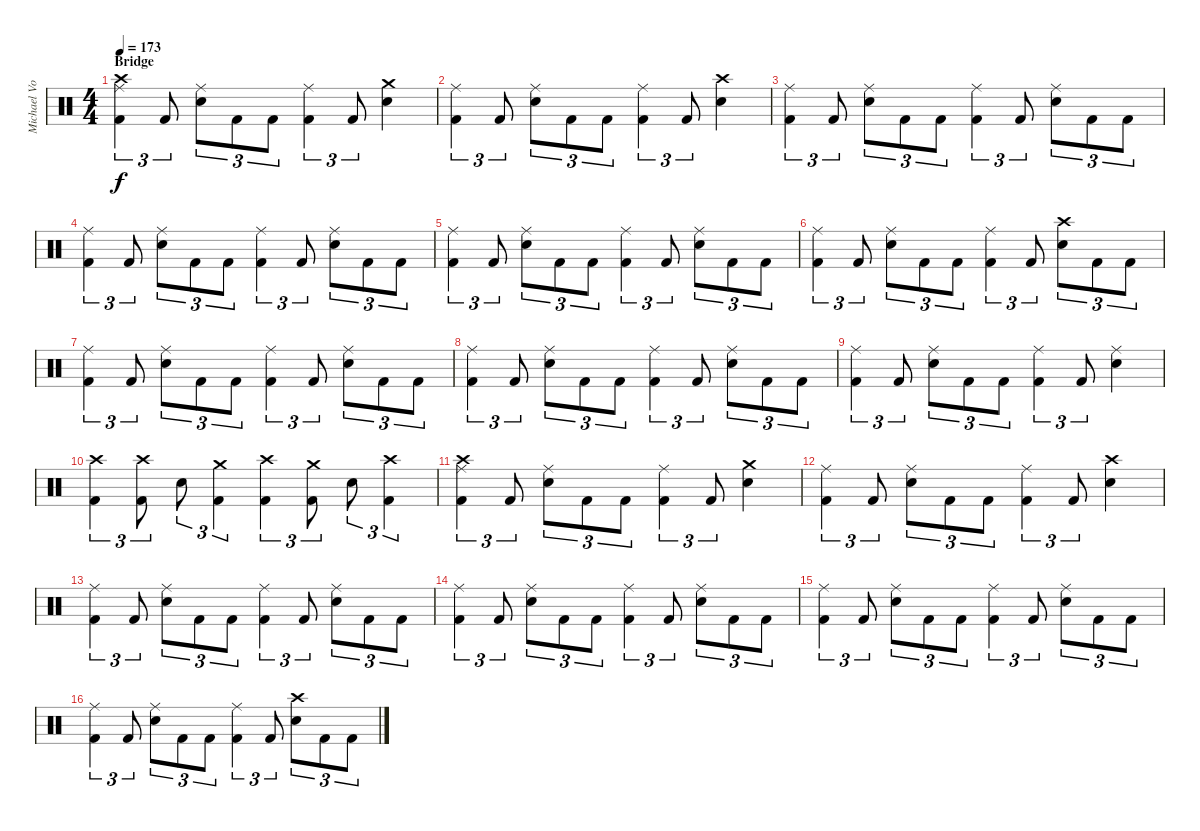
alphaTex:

\track ("Michael Von Knorring " "Michael Vo") {instrument percussion}
\staff {score}
\articulation defaults
\ts (4 4)
\section ("" "Bridge")
\tempo 173
\clef neutral
\ks c
("Crash high (hit)" "Ride (middle)" "Kick (hit) 2").4{tu (3 2) dy f} "Kick (hit) 2".8{tu (3 2)} ("Ride (middle)" "Snare (hit) 2").8{tu (3 2)} "Kick (hit) 2".8{tu (3 2)} "Kick (hit) 2".8{tu (3 2)} ("Ride (middle)" "Kick (hit) 2").4{tu (3 2)} "Kick (hit) 2".8{tu (3 2)} ("Crash medium (hit)" "Snare (hit) 2").4 |
("Ride (middle)" "Kick (hit) 2").4{tu (3 2)} "Kick (hit) 2".8{tu (3 2)} ("Ride (middle)" "Snare (hit) 2").8{tu (3 2)} "Kick (hit) 2".8{tu (3 2)} "Kick (hit) 2".8{tu (3 2)} ("Ride (middle)" "Kick (hit) 2").4{tu (3 2)} "Kick (hit) 2".8{tu (3 2)} ("Crash high (hit)" "Snare (hit) 2").4 |
("Ride (middle)" "Kick (hit) 2").4{tu (3 2)} "Kick (hit) 2".8{tu (3 2)} ("Ride (middle)" "Snare (hit) 2").8{tu (3 2)} "Kick (hit) 2".8{tu (3 2)} "Kick (hit) 2".8{tu (3 2)} ("Ride (middle)" "Kick (hit) 2").4{tu (3 2)} "Kick (hit) 2".8{tu (3 2)} ("Ride (middle)" "Snare (hit) 2").8{tu (3 2)} "Kick (hit) 2".8{tu (3 2)} "Kick (hit) 2".8{tu (3 2)} |
("Ride (middle)" "Kick (hit) 2").4{tu (3 2)} "Kick (hit) 2".8{tu (3 2)} ("Ride (middle)" "Snare (hit) 2").8{tu (3 2)} "Kick (hit) 2".8{tu (3 2)} "Kick (hit) 2".8{tu (3 2)} ("Ride (middle)" "Kick (hit) 2").4{tu (3 2)} "Kick (hit) 2".8{tu (3 2)} ("Ride (middle)" "Snare (hit) 2").8{tu (3 2)} "Kick (hit) 2".8{tu (3 2)} "Kick (hit) 2".8{tu (3 2)} |
("Ride (middle)" "Kick (hit) 2").4{tu (3 2)} "Kick (hit) 2".8{tu (3 2)} ("Ride (middle)" "Snare (hit) 2").8{tu (3 2)} "Kick (hit) 2".8{tu (3 2)} "Kick (hit) 2".8{tu (3 2)} ("Ride (middle)" "Kick (hit) 2").4{tu (3 2)} "Kick (hit) 2".8{tu (3 2)} ("Ride (middle)" "Snare (hit) 2").8{tu (3 2)} "Kick (hit) 2".8{tu (3 2)} "Kick (hit) 2".8{tu (3 2)} |
("Ride (middle)" "Kick (hit) 2").4{tu (3 2)} "Kick (hit) 2".8{tu (3 2)} ("Ride (middle)" "Snare (hit) 2").8{tu (3 2)} "Kick (hit) 2".8{tu (3 2)} "Kick (hit) 2".8{tu (3 2)} ("Ride (middle)" "Kick (hit) 2").4{tu (3 2)} "Kick (hit) 2".8{tu (3 2)} ("Crash high (hit)" "Snare (hit) 2").8{tu (3 2)} "Kick (hit) 2".8{tu (3 2)} "Kick (hit) 2".8{tu (3 2)} |
("Ride (middle)" "Kick (hit) 2").4{tu (3 2)} "Kick (hit) 2".8{tu (3 2)} ("Ride (middle)" "Snare (hit) 2").8{tu (3 2)} "Kick (hit) 2".8{tu (3 2)} "Kick (hit) 2".8{tu (3 2)} ("Ride (middle)" "Kick (hit) 2").4{tu (3 2)} "Kick (hit) 2".8{tu (3 2)} ("Ride (middle)" "Snare (hit) 2").8{tu (3 2)} "Kick (hit) 2".8{tu (3 2)} "Kick (hit) 2".8{tu (3 2)} |
("Ride (middle)" "Kick (hit) 2").4{tu (3 2)} "Kick (hit) 2".8{tu (3 2)} ("Ride (middle)" "Snare (hit) 2").8{tu (3 2)} "Kick (hit) 2".8{tu (3 2)} "Kick (hit) 2".8{tu (3 2)} ("Ride (middle)" "Kick (hit) 2").4{tu (3 2)} "Kick (hit) 2".8{tu (3 2)} ("Ride (middle)" "Snare (hit) 2").8{tu (3 2)} "Kick (hit) 2".8{tu (3 2)} "Kick (hit) 2".8{tu (3 2)} |
("Ride (middle)" "Kick (hit) 2").4{tu (3 2)} "Kick (hit) 2".8{tu (3 2)} ("Ride (middle)" "Snare (hit) 2").8{tu (3 2)} "Kick (hit) 2".8{tu (3 2)} "Kick (hit) 2".8{tu (3 2)} ("Ride (middle)" "Kick (hit) 2").4{tu (3 2)} "Kick (hit) 2".8{tu (3 2)} ("Ride (middle)" "Snare (hit) 2").4 |
("Crash high (hit)" "Kick (hit) 2").4{tu (3 2)} ("Crash high (hit)" "Kick (hit) 2").8{tu (3 2)} "Snare (hit) 2".8{tu (3 2)} ("Crash medium (hit)" "Kick (hit) 2").4{tu (3 2)} ("Crash high (hit)" "Kick (hit) 2").4{tu (3 2)} ("Crash medium (hit)" "Kick (hit) 2").8{tu (3 2)} "Snare (hit) 2".8{tu (3 2)} ("Crash high (hit)" "Kick (hit) 2").4{tu (3 2)} |
("Crash high (hit)" "Ride (middle)" "Kick (hit) 2").4{tu (3 2)} "Kick (hit) 2".8{tu (3 2)} ("Ride (middle)" "Snare (hit) 2").8{tu (3 2)} "Kick (hit) 2".8{tu (3 2)} "Kick (hit) 2".8{tu (3 2)} ("Ride (middle)" "Kick (hit) 2").4{tu (3 2)} "Kick (hit) 2".8{tu (3 2)} ("Crash medium (hit)" "Snare (hit) 2").4 |
("Ride (middle)" "Kick (hit) 2").4{tu (3 2)} "Kick (hit) 2".8{tu (3 2)} ("Ride (middle)" "Snare (hit) 2").8{tu (3 2)} "Kick (hit) 2".8{tu (3 2)} "Kick (hit) 2".8{tu (3 2)} ("Ride (middle)" "Kick (hit) 2").4{tu (3 2)} "Kick (hit) 2".8{tu (3 2)} ("Crash high (hit)" "Snare (hit) 2").4 |
("Ride (middle)" "Kick (hit) 2").4{tu (3 2)} "Kick (hit) 2".8{tu (3 2)} ("Ride (middle)" "Snare (hit) 2").8{tu (3 2)} "Kick (hit) 2".8{tu (3 2)} "Kick (hit) 2".8{tu (3 2)} ("Ride (middle)" "Kick (hit) 2").4{tu (3 2)} "Kick (hit) 2".8{tu (3 2)} ("Ride (middle)" "Snare (hit) 2").8{tu (3 2)} "Kick (hit) 2".8{tu (3 2)} "Kick (hit) 2".8{tu (3 2)} |
("Ride (middle)" "Kick (hit) 2").4{tu (3 2)} "Kick (hit) 2".8{tu (3 2)} ("Ride (middle)" "Snare (hit) 2").8{tu (3 2)} "Kick (hit) 2".8{tu (3 2)} "Kick (hit) 2".8{tu (3 2)} ("Ride (middle)" "Kick (hit) 2").4{tu (3 2)} "Kick (hit) 2".8{tu (3 2)} ("Ride (middle)" "Snare (hit) 2").8{tu (3 2)} "Kick (hit) 2".8{tu (3 2)} "Kick (hit) 2".8{tu (3 2)} |
("Ride (middle)" "Kick (hit) 2").4{tu (3 2)} "Kick (hit) 2".8{tu (3 2)} ("Ride (middle)" "Snare (hit) 2").8{tu (3 2)} "Kick (hit) 2".8{tu (3 2)} "Kick (hit) 2".8{tu (3 2)} ("Ride (middle)" "Kick (hit) 2").4{tu (3 2)} "Kick (hit) 2".8{tu (3 2)} ("Ride (middle)" "Snare (hit) 2").8{tu (3 2)} "Kick (hit) 2".8{tu (3 2)} "Kick (hit) 2".8{tu (3 2)} |
("Ride (middle)" "Kick (hit) 2").4{tu (3 2)} "Kick (hit) 2".8{tu (3 2)} ("Ride (middle)" "Snare (hit) 2").8{tu (3 2)} "Kick (hit) 2".8{tu (3 2)} "Kick (hit) 2".8{tu (3 2)} ("Ride (middle)" "Kick (hit) 2").4{tu (3 2)} "Kick (hit) 2".8{tu (3 2)} ("Crash high (hit)" "Snare (hit) 2").8{tu (3 2)} "Kick (hit) 2".8{tu (3 2)} "Kick (hit) 2".8{tu (3 2)}
